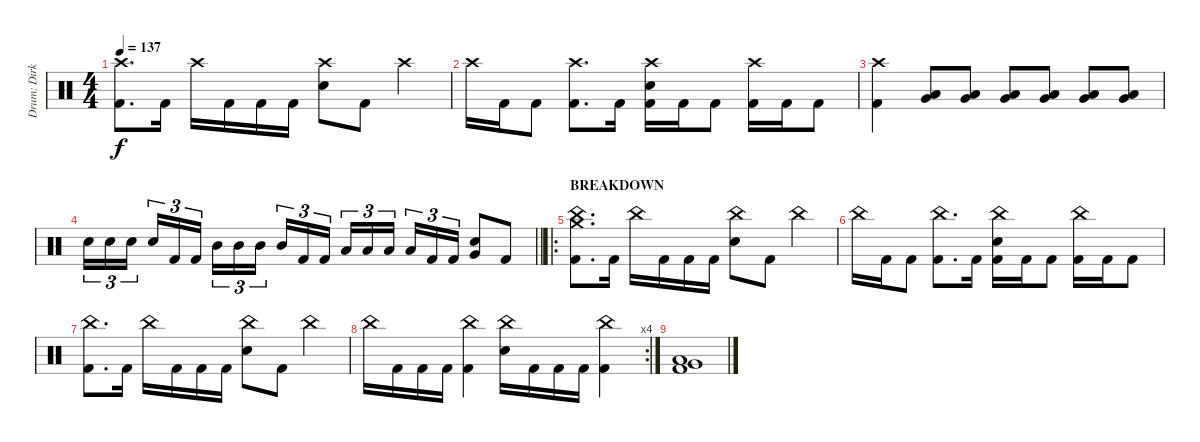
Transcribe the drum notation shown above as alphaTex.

\track ("Drum: Dirk" "Drum: Dirk") {instrument percussion}
\staff {score}
\articulation defaults
\ts (4 4)
\tempo 137
\clef neutral
\ks c
("Crash high (hit)" "Kick (hit) 2").8{d dy f} "Kick (hit) 2".16 "Crash high (hit)".16 "Kick (hit) 2".16 "Kick (hit) 2".16 "Kick (hit) 2".16 ("Crash high (hit)" "Electric Snare (hit)").8 "Kick (hit) 2".8 "Crash high (hit)".4 |
"Crash high (hit)".16 "Kick (hit) 2".16 "Kick (hit) 2".8 ("Crash high (hit)" "Kick (hit) 2").8{d} "Kick (hit) 2".16 ("Crash high (hit)" "Electric Snare (hit)" "Kick (hit) 2").16 "Kick (hit) 2".16 "Kick (hit) 2".8 ("Crash high (hit)" "Kick (hit) 2").16 "Kick (hit) 2".16 "Kick (hit) 2".8 |
("Crash high (hit)" "Kick (hit) 2").4 ("Low Tom (hit)" "Very Low Tom (hit)").8 ("Low Tom (hit)" "Very Low Tom (hit)").8 ("Low Tom (hit)" "Very Low Tom (hit)").8 ("Low Tom (hit)" "Very Low Tom (hit)").8 ("Low Tom (hit)" "Very Low Tom (hit)").8 ("Low Tom (hit)" "Very Low Tom (hit)").8 |
\barLineRight lightlight "Electric Snare (hit)".16{tu (3 2)} "Electric Snare (hit)".16{tu (3 2)} "Electric Snare (hit)".16{tu (3 2) beam splitsecondary} "Electric Snare (hit)".16{tu (3 2)} "Kick (hit) 2".16{tu (3 2)} "Kick (hit) 2".16{tu (3 2)} "Mid Tom (hit)".16{tu (3 2)} "Mid Tom (hit)".16{tu (3 2)} "Mid Tom (hit)".16{tu (3 2) beam splitsecondary} "Mid Tom (hit)".16{tu (3 2)} "Kick (hit) 2".16{tu (3 2)} "Kick (hit) 2".16{tu (3 2)} "Low Tom (hit)".16{tu (3 2)} "Low Tom (hit)".16{tu (3 2)} "Low Tom (hit)".16{tu (3 2) beam splitsecondary} "Low Tom (hit)".16{tu (3 2)} "Kick (hit) 2".16{tu (3 2)} "Kick (hit) 2".16{tu (3 2)}
("Electric Snare (hit)" "Very Low Tom (hit)").8 "Kick (hit) 2".8 |
\ro
\section ("" "BREAKDOWN")
("China (hit)" "Crash medium (hit)" "Kick (hit) 2").8{d} "Kick (hit) 2".16 "China (hit)".16 "Kick (hit) 2".16 "Kick (hit) 2".16 "Kick (hit) 2".16 ("China (hit)" "Electric Snare (hit)").8 "Kick (hit) 2".8 "China (hit)".4 |
"China (hit)".16 "Kick (hit) 2".16 "Kick (hit) 2".8 ("China (hit)" "Kick (hit) 2").8{d} "Kick (hit) 2".16 ("China (hit)" "Electric Snare (hit)" "Kick (hit) 2").16 "Kick (hit) 2".16 "Kick (hit) 2".8 ("China (hit)" "Kick (hit) 2").16 "Kick (hit) 2".16 "Kick (hit) 2".8 |
("China (hit)" "Kick (hit) 2").8{d} "Kick (hit) 2".16 "China (hit)".16 "Kick (hit) 2".16 "Kick (hit) 2".16 "Kick (hit) 2".16 ("China (hit)" "Electric Snare (hit)").8 "Kick (hit) 2".8 "China (hit)".4 |
\rc 4 "China (hit)".16 "Kick (hit) 2".16 "Kick (hit) 2".16 "Kick (hit) 2".16
("China (hit)" "Kick (hit) 2").4 ("China (hit)" "Electric Snare (hit)").16 "Kick (hit) 2".16 "Kick (hit) 2".16 "Kick (hit) 2".16 ("China (hit)" "Kick (hit) 2").4 |
("Low Tom (hit)" "Very Low Tom (hit)" "Kick (hit) 2").1
